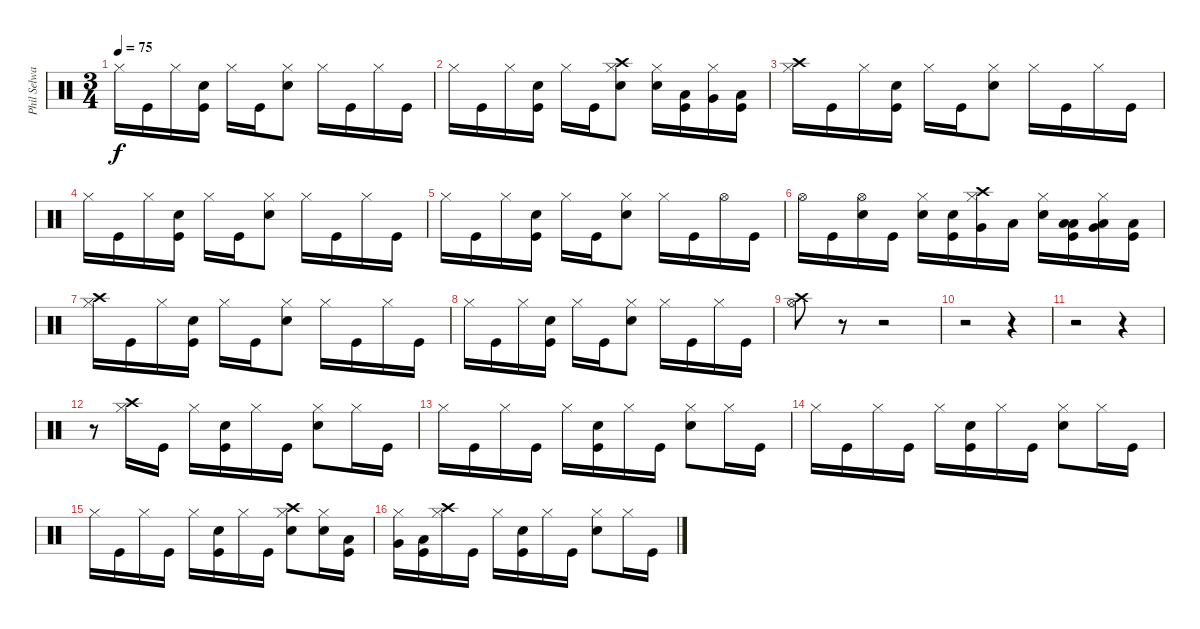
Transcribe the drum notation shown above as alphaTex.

\track ("Phil Selway" "Phil Selwa") {instrument percussion}
\staff {score}
\articulation defaults
\ts (3 4)
\tempo 75
\clef neutral
\ks c "Hi-Hat (closed)".16{dy f} "Kick (hit)".16 "Hi-Hat (closed)".16
("Kick (hit)" "Snare (hit) 2").16 "Hi-Hat (closed)".16 "Kick (hit)".16 ("Snare (hit) 2" "Hi-Hat (closed)").8 "Hi-Hat (closed)".16 "Kick (hit)".16 "Hi-Hat (closed)".16 "Kick (hit)".16 |
"Hi-Hat (closed)".16 "Kick (hit)".16 "Hi-Hat (closed)".16 ("Kick (hit)" "Snare (hit) 2").16 "Hi-Hat (closed)".16 "Kick (hit)".16 ("Snare (hit) 2" "Hi-Hat (closed)" "Crash high (hit)").8 ("Snare (hit) 2" "Hi-Hat (closed)").16 ("Kick (hit)" "Low Tom (hit)").16 ("Hi-Hat (closed)" "Very Low Tom (hit)").16 ("Kick (hit)" "Low Floor Tom (hit)").16 |
("Hi-Hat (closed)" "Crash high (hit)").16 "Kick (hit)".16 "Hi-Hat (closed)".16 ("Kick (hit)" "Snare (hit) 2").16 "Hi-Hat (closed)".16 "Kick (hit)".16 ("Snare (hit) 2" "Hi-Hat (closed)").8 "Hi-Hat (closed)".16 "Kick (hit)".16 "Hi-Hat (closed)".16 "Kick (hit)".16 |
"Hi-Hat (closed)".16 "Kick (hit)".16 "Hi-Hat (closed)".16 ("Kick (hit)" "Snare (hit) 2").16 "Hi-Hat (closed)".16 "Kick (hit)".16 ("Snare (hit) 2" "Hi-Hat (closed)").8 "Hi-Hat (closed)".16 "Kick (hit)".16 "Hi-Hat (closed)".16 "Kick (hit)".16 |
"Hi-Hat (closed)".16 "Kick (hit)".16 "Hi-Hat (closed)".16 ("Kick (hit)" "Snare (hit) 2").16 "Hi-Hat (closed)".16 "Kick (hit)".16 ("Snare (hit) 2" "Hi-Hat (closed)").8 "Hi-Hat (closed)".16 "Kick (hit)".16 "Hi-Hat (open)".16 "Kick (hit)".16 |
"Hi-Hat (open)".16 "Kick (hit)".16 ("Snare (hit) 2" "Hi-Hat (open)").16 "Kick (hit)".16 ("Snare (hit) 2" "Hi-Hat (closed)").16 ("Kick (hit)" "Snare (hit) 2").16 ("Hi-Hat (closed)" "Very Low Tom (hit)" "Crash high (hit)").16 "Low Tom (hit)".16 ("Snare (hit) 2" "Hi-Hat (closed)").16 ("Kick (hit)" "Low Floor Tom (hit)" "Low Tom (hit)").16 ("Hi-Hat (closed)" "Very Low Tom (hit)" "Low Tom (hit)").16 ("Kick (hit)" "Low Floor Tom (hit)").16 |
("Hi-Hat (closed)" "Crash high (hit)").16 "Kick (hit)".16 "Hi-Hat (closed)".16 ("Kick (hit)" "Snare (hit) 2").16 "Hi-Hat (closed)".16 "Kick (hit)".16 ("Snare (hit) 2" "Hi-Hat (closed)").8 "Hi-Hat (closed)".16 "Kick (hit)".16 "Hi-Hat (closed)".16 "Kick (hit)".16 |
"Hi-Hat (closed)".16 "Kick (hit)".16 "Hi-Hat (closed)".16 ("Kick (hit)" "Snare (hit) 2").16 "Hi-Hat (closed)".16 "Kick (hit)".16 ("Snare (hit) 2" "Hi-Hat (closed)").8 "Hi-Hat (closed)".16 "Kick (hit)".16 "Hi-Hat (closed)".16 "Kick (hit)".16 |
("Hi-Hat (open)" "Crash high (hit)").8 r.8 r.2 |
r.2 r.4 |
r.2 r.4 |
r.8 ("Hi-Hat (closed)" "Crash high (hit)").16 "Kick (hit)".16 "Hi-Hat (closed)".16 ("Kick (hit)" "Snare (hit) 2").16 "Hi-Hat (closed)".16 "Kick (hit)".16 ("Snare (hit) 2" "Hi-Hat (closed)").8 "Hi-Hat (closed)".16 "Kick (hit)".16 |
"Hi-Hat (closed)".16 "Kick (hit)".16 "Hi-Hat (closed)".16 "Kick (hit)".16 "Hi-Hat (closed)".16 ("Kick (hit)" "Snare (hit) 2").16 "Hi-Hat (closed)".16 "Kick (hit)".16 ("Snare (hit) 2" "Hi-Hat (closed)").8 "Hi-Hat (closed)".16 "Kick (hit)".16 |
"Hi-Hat (closed)".16 "Kick (hit)".16 "Hi-Hat (closed)".16 "Kick (hit)".16 "Hi-Hat (closed)".16 ("Kick (hit)" "Snare (hit) 2").16 "Hi-Hat (closed)".16 "Kick (hit)".16 ("Snare (hit) 2" "Hi-Hat (closed)").8 "Hi-Hat (closed)".16 "Kick (hit)".16 |
"Hi-Hat (closed)".16 "Kick (hit)".16 "Hi-Hat (closed)".16 "Kick (hit)".16 "Hi-Hat (closed)".16 ("Kick (hit)" "Snare (hit) 2").16 "Hi-Hat (closed)".16 "Kick (hit)".16 ("Snare (hit) 2" "Hi-Hat (closed)" "Crash high (hit)").8 ("Snare (hit) 2" "Hi-Hat (closed)").16 ("Kick (hit)" "Low Tom (hit)").16 |
("Hi-Hat (closed)" "Very Low Tom (hit)").16 ("Kick (hit)" "Low Floor Tom (hit)").16 ("Hi-Hat (closed)" "Crash high (hit)").16 "Kick (hit)".16 "Hi-Hat (closed)".16 ("Kick (hit)" "Snare (hit) 2").16 "Hi-Hat (closed)".16 "Kick (hit)".16 ("Snare (hit) 2" "Hi-Hat (closed)").8 "Hi-Hat (closed)".16 "Kick (hit)".16
